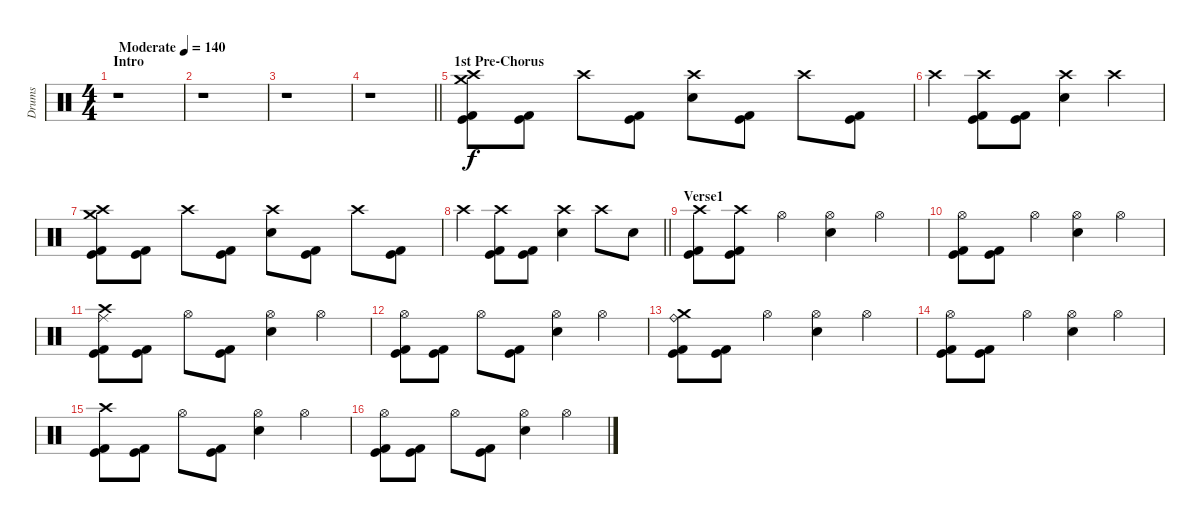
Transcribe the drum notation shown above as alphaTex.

\track ("Drums" "Drums") {instrument percussion}
\staff {score}
\articulation defaults
\ts (4 4)
\section ("" "Intro")
\tempo (140 "Moderate")
\clef neutral
\ks c
r.1{dy f} |
r.1 |
r.1 |
\barLineRight lightlight
r.1 |
\section ("" "1st Pre-Chorus")
("Kick (hit)" "Kick (hit) 2" "Crash high (hit)" "Crash medium (hit)").8 ("Kick (hit)" "Kick (hit) 2").8 "Crash high (hit)".8 ("Kick (hit)" "Kick (hit) 2").8 ("Snare (hit) 2" "Crash high (hit)").8 ("Kick (hit)" "Kick (hit) 2").8 "Crash high (hit)".8 ("Kick (hit) 2" "Kick (hit)").8 |
"Crash high (hit)".4 ("Kick (hit)" "Kick (hit) 2" "Crash high (hit)").8 ("Kick (hit)" "Kick (hit) 2").8 ("Crash high (hit)" "Snare (hit) 2").4 "Crash high (hit)".4 |
("Kick (hit)" "Kick (hit) 2" "Crash high (hit)" "Crash medium (hit)").8 ("Kick (hit)" "Kick (hit) 2").8 "Crash high (hit)".8 ("Kick (hit)" "Kick (hit) 2").8 ("Snare (hit) 2" "Crash high (hit)").8 ("Kick (hit)" "Kick (hit) 2").8 "Crash high (hit)".8 ("Kick (hit) 2" "Kick (hit)").8 |
\barLineRight lightlight "Crash high (hit)".4
("Kick (hit)" "Kick (hit) 2" "Crash high (hit)").8 ("Kick (hit)" "Kick (hit) 2").8 ("Crash high (hit)" "Snare (hit) 2").4 "Crash high (hit)".8 "Snare (hit) 2".8 |
\section ("" "Verse1")
("Kick (hit)" "Kick (hit) 2" "Crash high (hit)").8 ("Kick (hit) 2" "Kick (hit)" "Crash high (hit)").8 "Hi-Hat (open)".4 ("Snare (hit) 2" "Hi-Hat (open)").4 "Hi-Hat (open)".4 |
("Kick (hit)" "Kick (hit) 2" "Hi-Hat (open)").8 ("Kick (hit) 2" "Kick (hit)").8 "Hi-Hat (open)".4 ("Snare (hit) 2" "Hi-Hat (open)").4 "Hi-Hat (open)".4 |
("Kick (hit)" "Kick (hit) 2" "Crash high (hit)" "Ride (middle)").8 ("Kick (hit)" "Kick (hit) 2").8 "Hi-Hat (open)".8 ("Kick (hit)" "Kick (hit) 2").8 ("Snare (hit) 2" "Hi-Hat (open)").4 "Hi-Hat (open)".4 |
("Kick (hit)" "Kick (hit) 2" "Hi-Hat (open)").8 ("Kick (hit)" "Kick (hit) 2").8 "Hi-Hat (open)".8 ("Kick (hit)" "Kick (hit) 2").8 ("Snare (hit) 2" "Hi-Hat (open)").4 "Hi-Hat (open)".4 |
("Kick (hit)" "Kick (hit) 2" "Ride (bell)" "Crash medium (hit)").8 ("Kick (hit) 2" "Kick (hit)").8 "Hi-Hat (open)".4 ("Snare (hit) 2" "Hi-Hat (open)").4 "Hi-Hat (open)".4 |
("Kick (hit)" "Kick (hit) 2" "Hi-Hat (open)").8 ("Kick (hit) 2" "Kick (hit)").8 "Hi-Hat (open)".4 ("Snare (hit) 2" "Hi-Hat (open)").4 "Hi-Hat (open)".4 |
("Kick (hit)" "Kick (hit) 2" "Crash high (hit)").8 ("Kick (hit)" "Kick (hit) 2").8 "Hi-Hat (open)".8 ("Kick (hit)" "Kick (hit) 2").8 ("Snare (hit) 2" "Hi-Hat (open)").4 "Hi-Hat (open)".4 |
("Kick (hit)" "Kick (hit) 2" "Hi-Hat (open)").8 ("Kick (hit)" "Kick (hit) 2").8 "Hi-Hat (open)".8 ("Kick (hit)" "Kick (hit) 2").8 ("Snare (hit) 2" "Hi-Hat (open)").4 "Hi-Hat (open)".4
